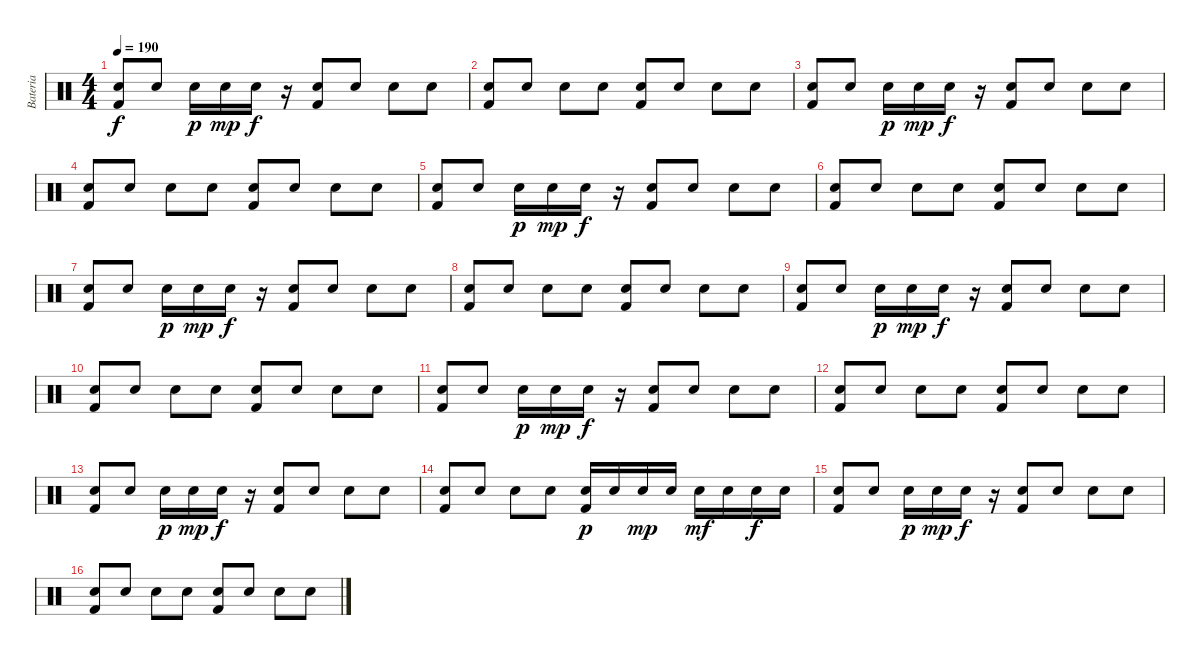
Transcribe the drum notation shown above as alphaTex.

\track ("Bateria" "Bateria") {instrument percussion}
\staff {score}
\articulation defaults
\ts (4 4)
\tempo 190
\clef neutral
\ks c
("Electric Snare (hit)" "Kick (hit) 2").8{dy f} "Snare (hit)".8 "Electric Snare (hit)".16{dy p} "Electric Snare (hit)".16{dy mp} "Electric Snare (hit)".16{dy f} r.16 ("Electric Snare (hit)" "Kick (hit) 2").8 "Snare (hit)".8 "Electric Snare (hit)".8 "Snare (hit)".8 |
("Electric Snare (hit)" "Kick (hit) 2").8 "Electric Snare (hit)".8 "Electric Snare (hit)".8 "Snare (hit)".8 ("Electric Snare (hit)" "Kick (hit) 2").8 "Snare (hit)".8 "Electric Snare (hit)".8 "Electric Snare (hit)".8 |
("Electric Snare (hit)" "Kick (hit) 2").8 "Snare (hit)".8 "Electric Snare (hit)".16{dy p} "Electric Snare (hit)".16{dy mp} "Electric Snare (hit)".16{dy f} r.16 ("Electric Snare (hit)" "Kick (hit) 2").8 "Snare (hit)".8 "Electric Snare (hit)".8 "Snare (hit)".8 |
("Electric Snare (hit)" "Kick (hit) 2").8 "Electric Snare (hit)".8 "Electric Snare (hit)".8 "Snare (hit)".8 ("Electric Snare (hit)" "Kick (hit) 2").8 "Snare (hit)".8 "Electric Snare (hit)".8 "Electric Snare (hit)".8 |
("Electric Snare (hit)" "Kick (hit) 2").8 "Snare (hit)".8 "Electric Snare (hit)".16{dy p} "Electric Snare (hit)".16{dy mp} "Electric Snare (hit)".16{dy f} r.16 ("Electric Snare (hit)" "Kick (hit) 2").8 "Snare (hit)".8 "Electric Snare (hit)".8 "Snare (hit)".8 |
("Electric Snare (hit)" "Kick (hit) 2").8 "Electric Snare (hit)".8 "Electric Snare (hit)".8 "Snare (hit)".8 ("Electric Snare (hit)" "Kick (hit) 2").8 "Snare (hit)".8 "Electric Snare (hit)".8 "Electric Snare (hit)".8 |
("Electric Snare (hit)" "Kick (hit) 2").8 "Snare (hit)".8 "Electric Snare (hit)".16{dy p} "Electric Snare (hit)".16{dy mp} "Electric Snare (hit)".16{dy f} r.16 ("Electric Snare (hit)" "Kick (hit) 2").8 "Snare (hit)".8 "Electric Snare (hit)".8 "Snare (hit)".8 |
("Electric Snare (hit)" "Kick (hit) 2").8 "Electric Snare (hit)".8 "Electric Snare (hit)".8 "Snare (hit)".8 ("Electric Snare (hit)" "Kick (hit) 2").8 "Snare (hit)".8 "Electric Snare (hit)".8 "Electric Snare (hit)".8 |
("Electric Snare (hit)" "Kick (hit) 2").8 "Snare (hit)".8 "Electric Snare (hit)".16{dy p} "Electric Snare (hit)".16{dy mp} "Electric Snare (hit)".16{dy f} r.16 ("Electric Snare (hit)" "Kick (hit) 2").8 "Snare (hit)".8 "Electric Snare (hit)".8 "Snare (hit)".8 |
("Electric Snare (hit)" "Kick (hit) 2").8 "Electric Snare (hit)".8 "Electric Snare (hit)".8 "Snare (hit)".8 ("Electric Snare (hit)" "Kick (hit) 2").8 "Snare (hit)".8 "Electric Snare (hit)".8 "Electric Snare (hit)".8 |
("Electric Snare (hit)" "Kick (hit) 2").8 "Snare (hit)".8 "Electric Snare (hit)".16{dy p} "Electric Snare (hit)".16{dy mp} "Electric Snare (hit)".16{dy f} r.16 ("Electric Snare (hit)" "Kick (hit) 2").8 "Snare (hit)".8 "Electric Snare (hit)".8 "Snare (hit)".8 |
("Electric Snare (hit)" "Kick (hit) 2").8 "Electric Snare (hit)".8 "Electric Snare (hit)".8 "Snare (hit)".8 ("Electric Snare (hit)" "Kick (hit) 2").8 "Snare (hit)".8 "Electric Snare (hit)".8 "Electric Snare (hit)".8 |
("Electric Snare (hit)" "Kick (hit) 2").8 "Snare (hit)".8 "Electric Snare (hit)".16{dy p} "Electric Snare (hit)".16{dy mp} "Electric Snare (hit)".16{dy f} r.16 ("Electric Snare (hit)" "Kick (hit) 2").8 "Snare (hit)".8 "Electric Snare (hit)".8 "Snare (hit)".8 |
("Electric Snare (hit)" "Kick (hit) 2").8 "Electric Snare (hit)".8 "Electric Snare (hit)".8 "Snare (hit)".8 ("Electric Snare (hit)" "Kick (hit) 2").16{dy p} "Electric Snare (hit)".16 "Electric Snare (hit)".16{dy mp} "Electric Snare (hit)".16 "Electric Snare (hit)".16{dy mf} "Electric Snare (hit)".16 "Electric Snare (hit)".16{dy f} "Electric Snare (hit)".16 |
("Electric Snare (hit)" "Kick (hit) 2").8 "Snare (hit)".8 "Electric Snare (hit)".16{dy p} "Electric Snare (hit)".16{dy mp} "Electric Snare (hit)".16{dy f} r.16 ("Electric Snare (hit)" "Kick (hit) 2").8 "Snare (hit)".8 "Electric Snare (hit)".8 "Snare (hit)".8 |
("Electric Snare (hit)" "Kick (hit) 2").8 "Electric Snare (hit)".8 "Electric Snare (hit)".8 "Snare (hit)".8 ("Electric Snare (hit)" "Kick (hit) 2").8 "Snare (hit)".8 "Electric Snare (hit)".8 "Electric Snare (hit)".8
